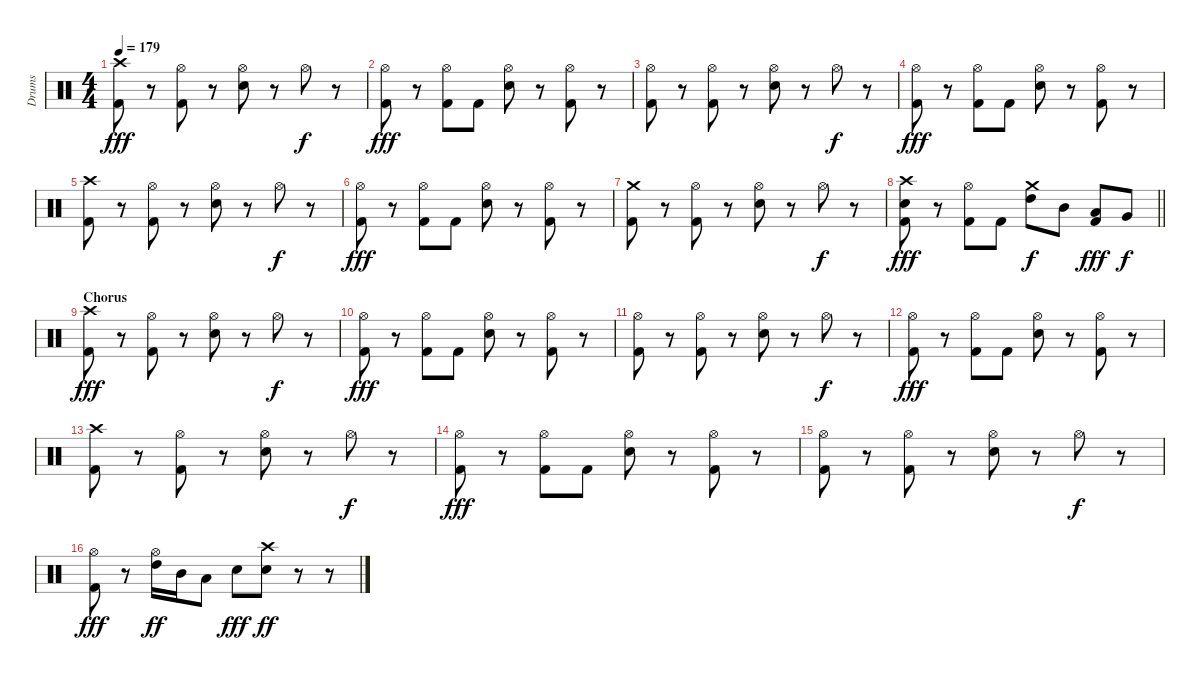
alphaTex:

\track ("Drums" "Drums") {instrument percussion}
\staff {score}
\articulation defaults
\ts (4 4)
\tempo 179
\clef neutral
\ks c
("Crash high (hit)" "Kick (hit) 2").8{dy fff} r.8 ("Hi-Hat (open)" "Kick (hit) 2").8 r.8 ("Hi-Hat (open)" "Snare (hit) 2").8 r.8 "Hi-Hat (open)".8{dy f} r.8 |
("Hi-Hat (open)" "Kick (hit) 2").8{dy fff} r.8 ("Hi-Hat (open)" "Kick (hit) 2").8 "Kick (hit) 2".8 ("Hi-Hat (open)" "Snare (hit) 2").8 r.8 ("Hi-Hat (open)" "Kick (hit) 2").8 r.8 |
("Hi-Hat (open)" "Kick (hit) 2").8 r.8 ("Hi-Hat (open)" "Kick (hit) 2").8 r.8 ("Hi-Hat (open)" "Snare (hit) 2").8 r.8 "Hi-Hat (open)".8{dy f} r.8 |
("Hi-Hat (open)" "Kick (hit) 2").8{dy fff} r.8 ("Hi-Hat (open)" "Kick (hit) 2").8 "Kick (hit) 2".8 ("Hi-Hat (open)" "Snare (hit) 2").8 r.8 ("Hi-Hat (open)" "Kick (hit) 2").8 r.8 |
("Crash high (hit)" "Kick (hit) 2").8 r.8 ("Hi-Hat (open)" "Kick (hit) 2").8 r.8 ("Hi-Hat (open)" "Snare (hit) 2").8 r.8 "Hi-Hat (open)".8{dy f} r.8 |
("Hi-Hat (open)" "Kick (hit) 2").8{dy fff} r.8 ("Hi-Hat (open)" "Kick (hit) 2").8 "Kick (hit) 2".8 ("Hi-Hat (open)" "Snare (hit) 2").8 r.8 ("Hi-Hat (open)" "Kick (hit) 2").8 r.8 |
("Crash medium (hit)" "Kick (hit) 2").8 r.8 ("Hi-Hat (open)" "Kick (hit) 2").8 r.8 ("Hi-Hat (open)" "Snare (hit) 2").8 r.8 "Hi-Hat (open)".8{dy f} r.8 |
\barLineRight lightlight
("Crash high (hit)" "Snare (hit) 2" "Kick (hit) 2").8{dy fff} r.8 ("Hi-Hat (open)" "Kick (hit) 2").8 "Kick (hit) 2".8 ("Crash medium (hit)" "High Tom (hit)").8{dy f} "Mid Tom (hit)".8 ("Low Tom (hit)" "Kick (hit) 2").8{dy fff} "Very Low Tom (hit)".8{dy f} |
\section ("" "Chorus")
("Crash high (hit)" "Kick (hit) 2").8{dy fff} r.8 ("Hi-Hat (open)" "Kick (hit) 2").8 r.8 ("Hi-Hat (open)" "Snare (hit) 2").8 r.8 "Hi-Hat (open)".8{dy f} r.8 |
("Hi-Hat (open)" "Kick (hit) 2").8{dy fff} r.8 ("Hi-Hat (open)" "Kick (hit) 2").8 "Kick (hit) 2".8 ("Hi-Hat (open)" "Snare (hit) 2").8 r.8 ("Hi-Hat (open)" "Kick (hit) 2").8 r.8 |
("Hi-Hat (open)" "Kick (hit) 2").8 r.8 ("Hi-Hat (open)" "Kick (hit) 2").8 r.8 ("Hi-Hat (open)" "Snare (hit) 2").8 r.8 "Hi-Hat (open)".8{dy f} r.8 |
("Hi-Hat (open)" "Kick (hit) 2").8{dy fff} r.8 ("Hi-Hat (open)" "Kick (hit) 2").8 "Kick (hit) 2".8 ("Hi-Hat (open)" "Snare (hit) 2").8 r.8 ("Hi-Hat (open)" "Kick (hit) 2").8 r.8 |
("Crash high (hit)" "Kick (hit) 2").8 r.8 ("Hi-Hat (open)" "Kick (hit) 2").8 r.8 ("Hi-Hat (open)" "Snare (hit) 2").8 r.8 "Hi-Hat (open)".8{dy f} r.8 |
("Hi-Hat (open)" "Kick (hit) 2").8{dy fff} r.8 ("Hi-Hat (open)" "Kick (hit) 2").8 "Kick (hit) 2".8 ("Hi-Hat (open)" "Snare (hit) 2").8 r.8 ("Hi-Hat (open)" "Kick (hit) 2").8 r.8 |
("Hi-Hat (open)" "Kick (hit) 2").8 r.8 ("Hi-Hat (open)" "Kick (hit) 2").8 r.8 ("Hi-Hat (open)" "Snare (hit) 2").8 r.8 "Hi-Hat (open)".8{dy f} r.8 |
("Hi-Hat (open)" "Kick (hit) 2").8{dy fff} r.8 ("Hi-Hat (open)" "High Tom (hit)").16{dy ff} "Mid Tom (hit)".16 "Low Tom (hit)".8 "Snare (hit) 2".8{dy fff} ("Crash high (hit)" "Snare (hit) 2").8{dy ff} r.8 r.8
